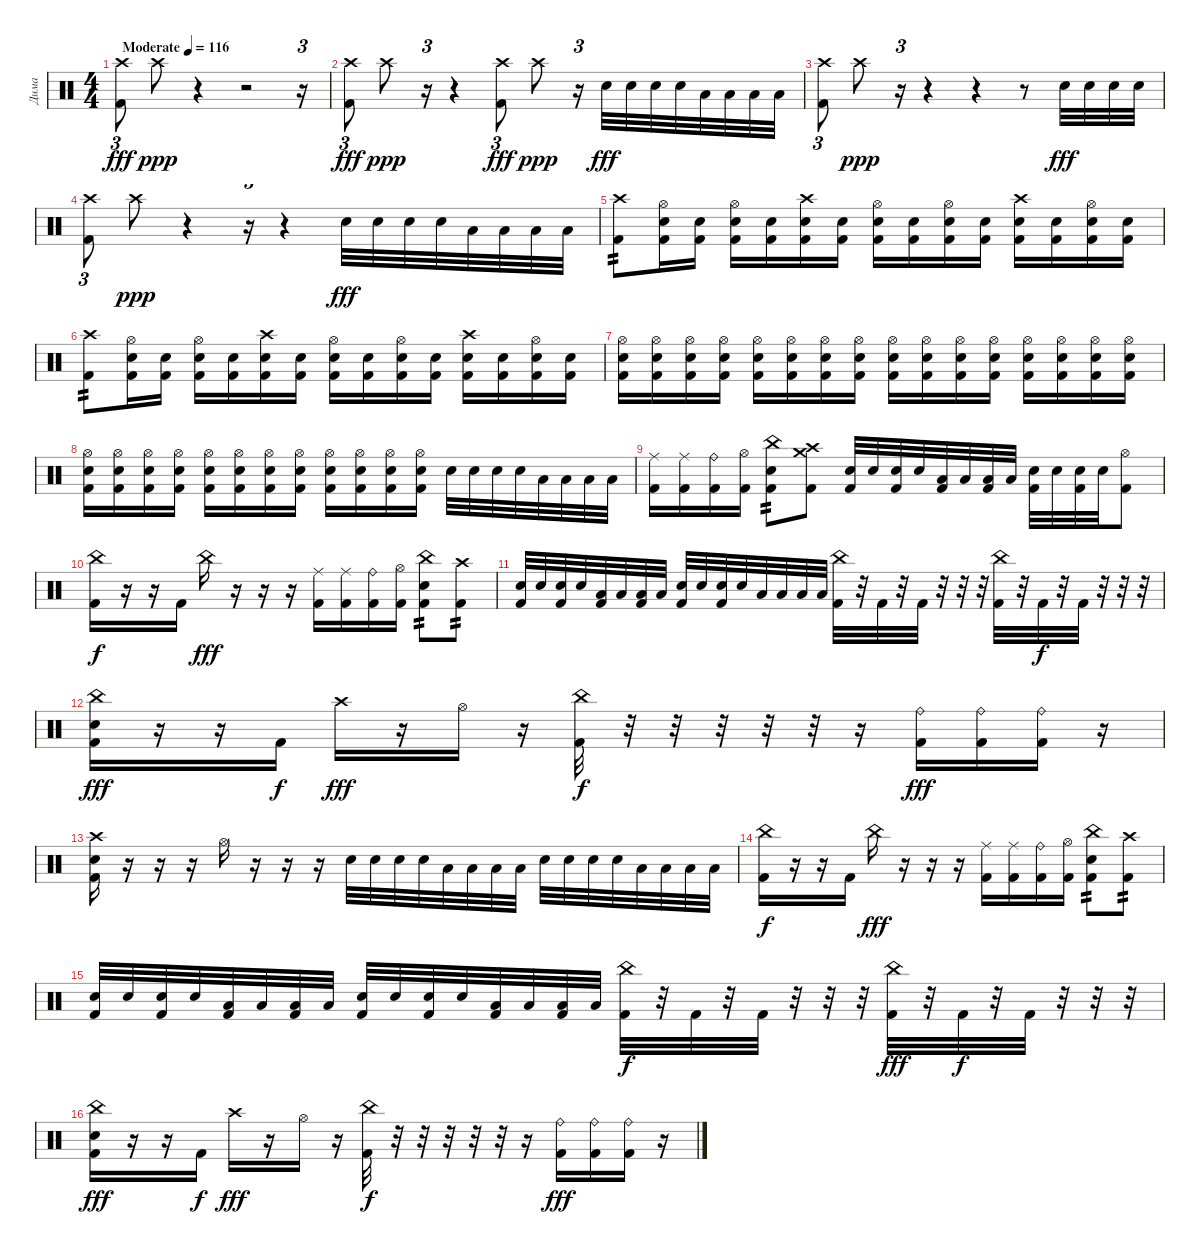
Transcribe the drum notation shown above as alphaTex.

\track ("Дима " "Дима ") {instrument percussion}
\staff {score}
\articulation defaults
\ts (4 4)
\tempo (116 "Moderate")
\clef neutral
\ks c
("Crash high (hit)" "Kick (hit) 2").8{tu (3 2) dy fff} "Crash high (hit)".8{dy ppp} r.4 r.2 r.16{tu (3 2)} |
("Crash high (hit)" "Kick (hit) 2").8{tu (3 2) dy fff} "Crash high (hit)".8{dy ppp} r.16{tu (3 2)} r.4 ("Crash high (hit)" "Kick (hit) 2").8{tu (3 2) dy fff} "Crash high (hit)".8{dy ppp} r.16{tu (3 2)} "Snare (hit) 2".32{dy fff} "Snare (hit) 2".32 "Snare (hit) 2".32 "Snare (hit) 2".32 "Low Tom (hit)".32 "Low Tom (hit)".32 "Low Tom (hit)".32 "Low Tom (hit)".32 |
("Crash high (hit)" "Kick (hit) 2").8{tu (3 2)} "Crash high (hit)".8{dy ppp} r.16{tu (3 2)} r.4 r.4 r.8 "Snare (hit) 2".32{dy fff} "Snare (hit) 2".32 "Snare (hit) 2".32 "Snare (hit) 2".32 |
("Crash high (hit)" "Kick (hit) 2").8{tu (3 2)} "Crash high (hit)".8{dy ppp} r.4 r.16{tu (3 2)} r.4 "Snare (hit) 2".32{dy fff} "Snare (hit) 2".32 "Snare (hit) 2".32 "Snare (hit) 2".32 "Low Tom (hit)".32 "Low Tom (hit)".32 "Low Tom (hit)".32 "Low Tom (hit)".32 |
("Crash high (hit)" "Kick (hit) 2").8{tp 2} ("Hi-Hat (open)" "Snare (hit) 2" "Kick (hit) 2").16 ("Snare (hit) 2" "Kick (hit) 2").16 ("Hi-Hat (open)" "Snare (hit) 2" "Kick (hit) 2").16 ("Snare (hit) 2" "Kick (hit) 2").16 ("Crash high (hit)" "Snare (hit) 2" "Kick (hit) 2").16 ("Snare (hit) 2" "Kick (hit) 2").16 ("Hi-Hat (open)" "Snare (hit) 2" "Kick (hit) 2").16 ("Snare (hit) 2" "Kick (hit) 2").16 ("Hi-Hat (open)" "Snare (hit) 2" "Kick (hit) 2").16 ("Snare (hit) 2" "Kick (hit) 2").16 ("Crash high (hit)" "Snare (hit) 2" "Kick (hit) 2").16 ("Snare (hit) 2" "Kick (hit) 2").16 ("Hi-Hat (open)" "Snare (hit) 2" "Kick (hit) 2").16 ("Snare (hit) 2" "Kick (hit) 2").16 |
("Crash high (hit)" "Kick (hit) 2").8{tp 2} ("Hi-Hat (open)" "Snare (hit) 2" "Kick (hit) 2").16 ("Snare (hit) 2" "Kick (hit) 2").16 ("Hi-Hat (open)" "Snare (hit) 2" "Kick (hit) 2").16 ("Snare (hit) 2" "Kick (hit) 2").16 ("Crash high (hit)" "Snare (hit) 2" "Kick (hit) 2").16 ("Snare (hit) 2" "Kick (hit) 2").16 ("Hi-Hat (open)" "Snare (hit) 2" "Kick (hit) 2").16 ("Snare (hit) 2" "Kick (hit) 2").16 ("Hi-Hat (open)" "Snare (hit) 2" "Kick (hit) 2").16 ("Snare (hit) 2" "Kick (hit) 2").16 ("Crash high (hit)" "Snare (hit) 2" "Kick (hit) 2").16 ("Snare (hit) 2" "Kick (hit) 2").16 ("Hi-Hat (open)" "Snare (hit) 2" "Kick (hit) 2").16 ("Snare (hit) 2" "Kick (hit) 2").16 |
("Hi-Hat (open)" "Snare (hit) 2" "Kick (hit) 2").16 ("Hi-Hat (open)" "Snare (hit) 2" "Kick (hit) 2").16 ("Hi-Hat (open)" "Snare (hit) 2" "Kick (hit) 2").16 ("Hi-Hat (open)" "Snare (hit) 2" "Kick (hit) 2").16 ("Hi-Hat (open)" "Snare (hit) 2" "Kick (hit) 2").16 ("Hi-Hat (open)" "Snare (hit) 2" "Kick (hit) 2").16 ("Hi-Hat (open)" "Snare (hit) 2" "Kick (hit) 2").16 ("Hi-Hat (open)" "Snare (hit) 2" "Kick (hit) 2").16 ("Hi-Hat (open)" "Snare (hit) 2" "Kick (hit) 2").16 ("Hi-Hat (open)" "Snare (hit) 2" "Kick (hit) 2").16 ("Hi-Hat (open)" "Snare (hit) 2" "Kick (hit) 2").16 ("Hi-Hat (open)" "Snare (hit) 2" "Kick (hit) 2").16 ("Hi-Hat (open)" "Snare (hit) 2" "Kick (hit) 2").16 ("Hi-Hat (open)" "Snare (hit) 2" "Kick (hit) 2").16 ("Hi-Hat (open)" "Snare (hit) 2" "Kick (hit) 2").16 ("Hi-Hat (open)" "Snare (hit) 2" "Kick (hit) 2").16 |
("Hi-Hat (open)" "Snare (hit) 2" "Kick (hit) 2").16 ("Hi-Hat (open)" "Snare (hit) 2" "Kick (hit) 2").16 ("Hi-Hat (open)" "Snare (hit) 2" "Kick (hit) 2").16 ("Hi-Hat (open)" "Snare (hit) 2" "Kick (hit) 2").16 ("Hi-Hat (open)" "Snare (hit) 2" "Kick (hit) 2").16 ("Hi-Hat (open)" "Snare (hit) 2" "Kick (hit) 2").16 ("Hi-Hat (open)" "Snare (hit) 2" "Kick (hit) 2").16 ("Hi-Hat (open)" "Snare (hit) 2" "Kick (hit) 2").16 ("Hi-Hat (open)" "Snare (hit) 2" "Kick (hit) 2").16 ("Hi-Hat (open)" "Snare (hit) 2" "Kick (hit) 2").16 ("Hi-Hat (open)" "Snare (hit) 2" "Kick (hit) 2").16 ("Hi-Hat (open)" "Snare (hit) 2" "Kick (hit) 2").16 "Snare (hit) 2".32 "Snare (hit) 2".32 "Snare (hit) 2".32 "Snare (hit) 2".32 "Low Tom (hit)".32 "Low Tom (hit)".32 "Low Tom (hit)".32 "Low Tom (hit)".32 |
("Ride (middle)" "Kick (hit) 2").16 ("Ride (middle)" "Kick (hit) 2").16 ("Ride (bell)" "Kick (hit) 2").16 ("Hi-Hat (open)" "Kick (hit) 2").16 ("China (hit)" "Snare (hit) 2" "Kick (hit) 2").8{tp 2} ("Crash high (hit)" "Crash medium (hit)" "Kick (hit) 2").8 ("Snare (hit) 2" "Kick (hit) 2").32 "Snare (hit) 2".32 ("Snare (hit) 2" "Kick (hit) 2").32 "Snare (hit) 2".32 ("Low Tom (hit)" "Kick (hit) 2").32 "Low Tom (hit)".32 ("Low Tom (hit)" "Kick (hit) 2").32 "Low Tom (hit)".32 ("Snare (hit) 2" "Kick (hit) 2").32 "Snare (hit) 2".32 ("Snare (hit) 2" "Kick (hit) 2").32 "Snare (hit) 2".32 ("Hi-Hat (open)" "Kick (hit) 2").8 |
("China (hit)" "Kick (hit) 2").16{dy f} r.16 r.16 "Kick (hit) 2".16 "China (hit)".16{dy fff} r.16 r.16 r.16 ("Ride (middle)" "Kick (hit) 2").16 ("Ride (middle)" "Kick (hit) 2").16 ("Ride (bell)" "Kick (hit) 2").16 ("Hi-Hat (open)" "Kick (hit) 2").16 ("China (hit)" "Snare (hit) 2" "Kick (hit) 2").8{tp 2} ("Crash high (hit)" "Kick (hit) 2").8{tp 2} |
("Snare (hit) 2" "Kick (hit) 2").32 "Snare (hit) 2".32 ("Snare (hit) 2" "Kick (hit) 2").32 "Snare (hit) 2".32 ("Low Tom (hit)" "Kick (hit) 2").32 "Low Tom (hit)".32 ("Low Tom (hit)" "Kick (hit) 2").32 "Low Tom (hit)".32 ("Snare (hit) 2" "Kick (hit) 2").32 "Snare (hit) 2".32 ("Snare (hit) 2" "Kick (hit) 2").32 "Snare (hit) 2".32 "Low Tom (hit)".32 "Low Tom (hit)".32 "Low Tom (hit)".32 "Low Tom (hit)".32 ("China (hit)" "Kick (hit) 2").32 r.32 "Kick (hit) 2".32 r.32 "Kick (hit) 2".32 r.32 r.32 r.32 ("China (hit)" "Kick (hit) 2").32 r.32 "Kick (hit) 2".32{dy f} r.32 "Kick (hit) 2".32 r.32 r.32 r.32 |
("China (hit)" "Snare (hit) 2" "Kick (hit) 2").16{dy fff} r.16 r.16 "Kick (hit) 2".16{dy f} "Crash high (hit)".16{dy fff} r.16 "Hi-Hat (open)".16 r.16 ("China (hit)" "Kick (hit) 2").32{dy f} r.32 r.32 r.32 r.32 r.32 r.16 ("Ride (bell)" "Kick (hit) 2").16{dy fff} ("Ride (bell)" "Kick (hit) 2").16 ("Ride (bell)" "Kick (hit) 2").16 r.16 |
("Crash high (hit)" "Snare (hit) 2" "Kick (hit) 2").16 r.16 r.16 r.16 "Hi-Hat (open)".16 r.16 r.16 r.16 "Snare (hit) 2".32 "Snare (hit) 2".32 "Snare (hit) 2".32 "Snare (hit) 2".32 "Low Tom (hit)".32 "Low Tom (hit)".32 "Low Tom (hit)".32 "Low Tom (hit)".32 "Snare (hit) 2".32 "Snare (hit) 2".32 "Snare (hit) 2".32 "Snare (hit) 2".32 "Low Tom (hit)".32 "Low Tom (hit)".32 "Low Tom (hit)".32 "Low Tom (hit)".32 |
("China (hit)" "Kick (hit) 2").16{dy f} r.16 r.16 "Kick (hit) 2".16 "China (hit)".16{dy fff} r.16 r.16 r.16 ("Ride (middle)" "Kick (hit) 2").16 ("Ride (middle)" "Kick (hit) 2").16 ("Ride (bell)" "Kick (hit) 2").16 ("Hi-Hat (open)" "Kick (hit) 2").16 ("China (hit)" "Snare (hit) 2" "Kick (hit) 2").8{tp 2} ("Crash high (hit)" "Kick (hit) 2").8{tp 2} |
("Snare (hit) 2" "Kick (hit) 2").32 "Snare (hit) 2".32 ("Snare (hit) 2" "Kick (hit) 2").32 "Snare (hit) 2".32 ("Low Tom (hit)" "Kick (hit) 2").32 "Low Tom (hit)".32 ("Low Tom (hit)" "Kick (hit) 2").32 "Low Tom (hit)".32 ("Snare (hit) 2" "Kick (hit) 2").32 "Snare (hit) 2".32 ("Snare (hit) 2" "Kick (hit) 2").32 "Snare (hit) 2".32 ("Low Tom (hit)" "Kick (hit) 2").32 "Low Tom (hit)".32 ("Low Tom (hit)" "Kick (hit) 2").32 "Low Tom (hit)".32 ("China (hit)" "Kick (hit) 2").32{dy f} r.32 "Kick (hit) 2".32 r.32 "Kick (hit) 2".32 r.32 r.32 r.32 ("China (hit)" "Kick (hit) 2").32{dy fff} r.32 "Kick (hit) 2".32{dy f} r.32 "Kick (hit) 2".32 r.32 r.32 r.32 |
("China (hit)" "Snare (hit) 2" "Kick (hit) 2").16{dy fff} r.16 r.16 "Kick (hit) 2".16{dy f} "Crash high (hit)".16{dy fff} r.16 "Hi-Hat (open)".16 r.16 ("China (hit)" "Kick (hit) 2").32{dy f} r.32 r.32 r.32 r.32 r.32 r.16 ("Ride (bell)" "Kick (hit) 2").16{dy fff} ("Ride (bell)" "Kick (hit) 2").16 ("Ride (bell)" "Kick (hit) 2").16 r.16
